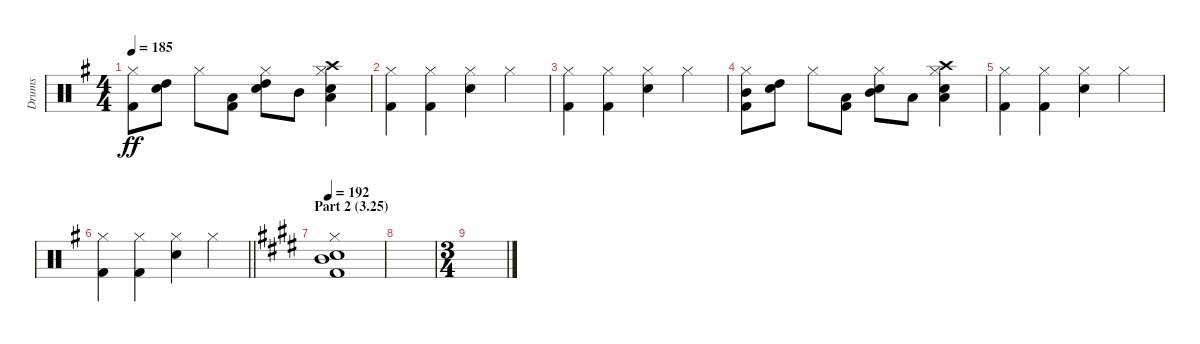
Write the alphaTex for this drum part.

\track ("Drums" "Drums") {instrument percussion}
\staff {score}
\articulation defaults
\ts (4 4)
\tempo 185
\clef neutral
\ks g
("Hi-Hat (closed)" "Kick (hit) 2").8{dy ff} ("Electric Snare (hit)" "High Tom (hit)").8 "Hi-Hat (closed)".8 ("Low Tom (hit)" "Kick (hit) 2").8 ("High Tom (hit)" "Hi-Hat (closed)" "Electric Snare (hit)").8 "Mid Tom (hit)".8 ("Crash high (hit)" "Low Tom (hit)" "Electric Snare (hit)" "Hi-Hat (closed)").4 |
("Hi-Hat (closed)" "Kick (hit) 2").4 ("Hi-Hat (closed)" "Kick (hit) 2").4 ("Electric Snare (hit)" "Hi-Hat (closed)").4 "Hi-Hat (closed)".4 |
("Kick (hit) 2" "Hi-Hat (closed)").4 ("Kick (hit) 2" "Hi-Hat (closed)").4 ("Electric Snare (hit)" "Hi-Hat (closed)").4 "Hi-Hat (closed)".4 |
("Mid Tom (hit)" "Hi-Hat (closed)" "Kick (hit) 2").8 ("Electric Snare (hit)" "High Tom (hit)").8 "Hi-Hat (closed)".8 ("Low Tom (hit)" "Kick (hit) 2").8 ("Mid Tom (hit)" "Electric Snare (hit)" "Hi-Hat (closed)").8 "Low Tom (hit)".8 ("Crash high (hit)" "Electric Snare (hit)" "Low Tom (hit)" "Hi-Hat (closed)").4 |
("Kick (hit) 2" "Hi-Hat (closed)").4 ("Kick (hit) 2" "Hi-Hat (closed)").4 ("Electric Snare (hit)" "Hi-Hat (closed)").4 "Hi-Hat (closed)".4 |
\barLineRight lightlight
("Hi-Hat (closed)" "Kick (hit) 2").4 ("Hi-Hat (closed)" "Kick (hit) 2").4 ("Hi-Hat (closed)" "Electric Snare (hit)").4 "Hi-Hat (closed)".4 |
\section ("" "Part 2 (3.25)")
\tempo 192
\ks e
("Mid Tom (hit)" "Kick (hit) 2" "Electric Snare (hit)" "Hi-Hat (closed)").1 |
|
\ts (3 4)
